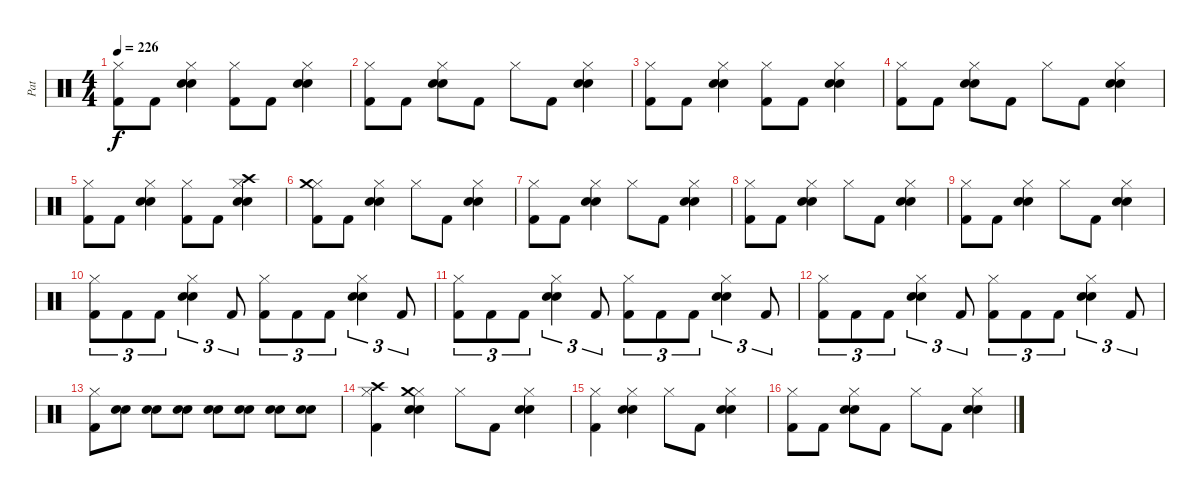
\track ("Pat" "Pat") {instrument percussion}
\staff {score}
\articulation defaults
\ts (4 4)
\tempo 226
\clef neutral
\ks c
("Hi-Hat (closed)" "Kick (hit) 2").8{dy f} "Kick (hit) 2".8 ("Hi-Hat (closed)" "Snare (hit) 2" "Electric Snare (hit)").4 ("Hi-Hat (closed)" "Kick (hit) 2").8 "Kick (hit) 2".8 ("Hi-Hat (closed)" "Snare (hit) 2" "Electric Snare (hit)").4 |
("Hi-Hat (closed)" "Kick (hit) 2").8 "Kick (hit) 2".8 ("Hi-Hat (closed)" "Snare (hit) 2" "Electric Snare (hit)").8 "Kick (hit) 2".8 "Hi-Hat (closed)".8 "Kick (hit) 2".8 ("Hi-Hat (closed)" "Snare (hit) 2" "Electric Snare (hit)").4 |
("Hi-Hat (closed)" "Kick (hit) 2").8 "Kick (hit) 2".8 ("Hi-Hat (closed)" "Snare (hit) 2" "Electric Snare (hit)").4 ("Hi-Hat (closed)" "Kick (hit) 2").8 "Kick (hit) 2".8 ("Hi-Hat (closed)" "Snare (hit) 2" "Electric Snare (hit)").4 |
("Hi-Hat (closed)" "Kick (hit) 2").8 "Kick (hit) 2".8 ("Hi-Hat (closed)" "Snare (hit) 2" "Electric Snare (hit)").8 "Kick (hit) 2".8 "Hi-Hat (closed)".8 "Kick (hit) 2".8 ("Hi-Hat (closed)" "Snare (hit) 2" "Electric Snare (hit)").4 |
("Hi-Hat (closed)" "Kick (hit) 2").8 "Kick (hit) 2".8 ("Hi-Hat (closed)" "Snare (hit) 2" "Electric Snare (hit)").4 ("Hi-Hat (closed)" "Kick (hit) 2").8 "Kick (hit) 2".8 ("Hi-Hat (closed)" "Crash high (hit)" "Snare (hit) 2" "Electric Snare (hit)").4 |
("Hi-Hat (closed)" "Crash medium (hit)" "Kick (hit) 2").8 "Kick (hit) 2".8 ("Hi-Hat (closed)" "Snare (hit) 2" "Electric Snare (hit)").4 "Hi-Hat (closed)".8 "Kick (hit) 2".8 ("Hi-Hat (closed)" "Snare (hit) 2" "Electric Snare (hit)").4 |
("Hi-Hat (closed)" "Kick (hit) 2").8 "Kick (hit) 2".8 ("Hi-Hat (closed)" "Snare (hit) 2" "Electric Snare (hit)").4 "Hi-Hat (closed)".8 "Kick (hit) 2".8 ("Hi-Hat (closed)" "Snare (hit) 2" "Electric Snare (hit)").4 |
("Hi-Hat (closed)" "Kick (hit) 2").8 "Kick (hit) 2".8 ("Hi-Hat (closed)" "Snare (hit) 2" "Electric Snare (hit)").4 "Hi-Hat (closed)".8 "Kick (hit) 2".8 ("Hi-Hat (closed)" "Snare (hit) 2" "Electric Snare (hit)").4 |
("Hi-Hat (closed)" "Kick (hit) 2").8 "Kick (hit) 2".8 ("Hi-Hat (closed)" "Snare (hit) 2" "Electric Snare (hit)").4 "Hi-Hat (closed)".8 "Kick (hit) 2".8 ("Hi-Hat (closed)" "Snare (hit) 2" "Electric Snare (hit)").4 |
("Hi-Hat (closed)" "Kick (hit) 2").8{tu (3 2)} "Kick (hit) 2".8{tu (3 2)} "Kick (hit) 2".8{tu (3 2)} ("Hi-Hat (closed)" "Snare (hit) 2" "Electric Snare (hit)").4{tu (3 2)} "Kick (hit) 2".8{tu (3 2)} ("Hi-Hat (closed)" "Kick (hit) 2").8{tu (3 2)} "Kick (hit) 2".8{tu (3 2)} "Kick (hit) 2".8{tu (3 2)} ("Hi-Hat (closed)" "Snare (hit) 2" "Electric Snare (hit)").4{tu (3 2)} "Kick (hit) 2".8{tu (3 2)} |
("Hi-Hat (closed)" "Kick (hit) 2").8{tu (3 2)} "Kick (hit) 2".8{tu (3 2)} "Kick (hit) 2".8{tu (3 2)} ("Hi-Hat (closed)" "Snare (hit) 2" "Electric Snare (hit)").4{tu (3 2)} "Kick (hit) 2".8{tu (3 2)} ("Hi-Hat (closed)" "Kick (hit) 2").8{tu (3 2)} "Kick (hit) 2".8{tu (3 2)} "Kick (hit) 2".8{tu (3 2)} ("Hi-Hat (closed)" "Snare (hit) 2" "Electric Snare (hit)").4{tu (3 2)} "Kick (hit) 2".8{tu (3 2)} |
("Hi-Hat (closed)" "Kick (hit) 2").8{tu (3 2)} "Kick (hit) 2".8{tu (3 2)} "Kick (hit) 2".8{tu (3 2)} ("Hi-Hat (closed)" "Snare (hit) 2" "Electric Snare (hit)").4{tu (3 2)} "Kick (hit) 2".8{tu (3 2)} ("Hi-Hat (closed)" "Kick (hit) 2").8{tu (3 2)} "Kick (hit) 2".8{tu (3 2)} "Kick (hit) 2".8{tu (3 2)} ("Hi-Hat (closed)" "Snare (hit) 2" "Electric Snare (hit)").4{tu (3 2)} "Kick (hit) 2".8{tu (3 2)} |
("Hi-Hat (closed)" "Kick (hit) 2").8 ("Snare (hit) 2" "Electric Snare (hit)").8 ("Snare (hit) 2" "Electric Snare (hit)").8 ("Snare (hit) 2" "Electric Snare (hit)").8 ("Snare (hit) 2" "Electric Snare (hit)").8 ("Snare (hit) 2" "Electric Snare (hit)").8 ("Snare (hit) 2" "Electric Snare (hit)").8 ("Snare (hit) 2" "Electric Snare (hit)").8 |
("Hi-Hat (closed)" "Crash high (hit)" "Kick (hit) 2").4 ("Hi-Hat (closed)" "Crash medium (hit)" "Snare (hit) 2" "Electric Snare (hit)").4 "Hi-Hat (closed)".8 "Kick (hit) 2".8 ("Hi-Hat (closed)" "Snare (hit) 2" "Electric Snare (hit)").4 |
("Hi-Hat (closed)" "Kick (hit) 2").4 ("Hi-Hat (closed)" "Snare (hit) 2" "Electric Snare (hit)").4 "Hi-Hat (closed)".8 "Kick (hit) 2".8 ("Hi-Hat (closed)" "Snare (hit) 2" "Electric Snare (hit)").4 |
("Hi-Hat (closed)" "Kick (hit) 2").8 "Kick (hit) 2".8 ("Hi-Hat (closed)" "Snare (hit) 2" "Electric Snare (hit)").8 "Kick (hit) 2".8 "Hi-Hat (closed)".8 "Kick (hit) 2".8 ("Hi-Hat (closed)" "Snare (hit) 2" "Electric Snare (hit)").4
